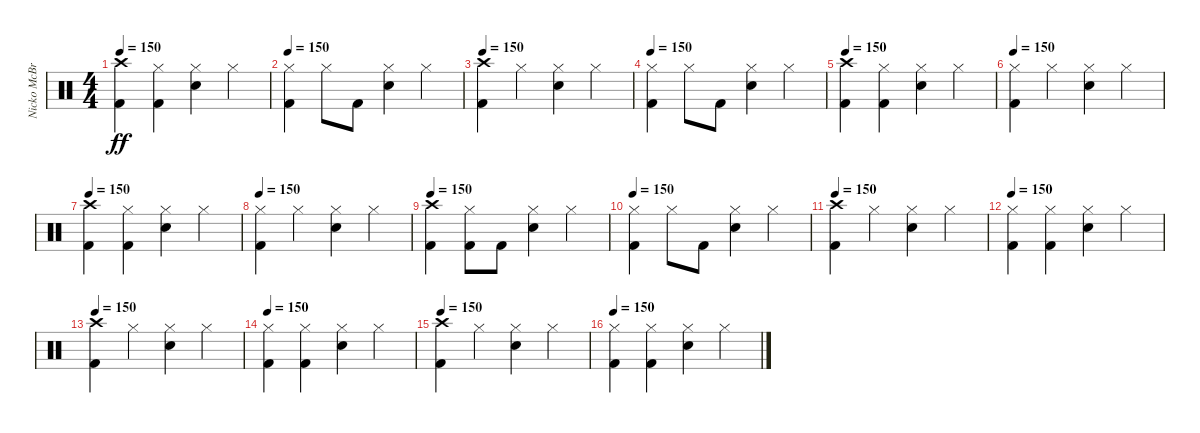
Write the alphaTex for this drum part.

\track ("Nicko McBrain" "Nicko McBr") {instrument percussion}
\staff {score}
\articulation defaults
\ts (4 4)
\tempo 150
\clef neutral
\ks c
("Kick (hit) 2" "Crash high (hit)").4{dy ff} ("Kick (hit) 2" "Hi-Hat (closed)").4 ("Snare (hit) 2" "Hi-Hat (closed)").4 "Hi-Hat (closed)".4 |
\tempo 150
("Kick (hit) 2" "Hi-Hat (closed)").4 "Hi-Hat (closed)".8 "Kick (hit) 2".8 ("Snare (hit) 2" "Hi-Hat (closed)").4 "Hi-Hat (closed)".4 |
\tempo 150
("Kick (hit) 2" "Crash high (hit)").4 "Hi-Hat (closed)".4 ("Snare (hit) 2" "Hi-Hat (closed)").4 "Hi-Hat (closed)".4 |
\tempo 150
("Kick (hit) 2" "Hi-Hat (closed)").4 "Hi-Hat (closed)".8 "Kick (hit) 2".8 ("Snare (hit) 2" "Hi-Hat (closed)").4 "Hi-Hat (closed)".4 |
\tempo 150
("Kick (hit) 2" "Crash high (hit)").4 ("Kick (hit) 2" "Hi-Hat (closed)").4 ("Snare (hit) 2" "Hi-Hat (closed)").4 "Hi-Hat (closed)".4 |
\tempo 150
("Kick (hit) 2" "Hi-Hat (closed)").4 "Hi-Hat (closed)".4 ("Snare (hit) 2" "Hi-Hat (closed)").4 "Hi-Hat (closed)".4 |
\tempo 150
("Kick (hit) 2" "Crash high (hit)").4 ("Kick (hit) 2" "Hi-Hat (closed)").4 ("Snare (hit) 2" "Hi-Hat (closed)").4 "Hi-Hat (closed)".4 |
\tempo 150
("Kick (hit) 2" "Hi-Hat (closed)").4 "Hi-Hat (closed)".4 ("Snare (hit) 2" "Hi-Hat (closed)").4 "Hi-Hat (closed)".4 |
\tempo 150
("Kick (hit) 2" "Crash high (hit)").4 ("Kick (hit) 2" "Hi-Hat (closed)").8 "Kick (hit) 2".8 ("Snare (hit) 2" "Hi-Hat (closed)").4 "Hi-Hat (closed)".4 |
\tempo 150
("Kick (hit) 2" "Hi-Hat (closed)").4 "Hi-Hat (closed)".8 "Kick (hit) 2".8 ("Snare (hit) 2" "Hi-Hat (closed)").4 "Hi-Hat (closed)".4 |
\tempo 150
("Kick (hit) 2" "Crash high (hit)").4 "Hi-Hat (closed)".4 ("Snare (hit) 2" "Hi-Hat (closed)").4 "Hi-Hat (closed)".4 |
\tempo 150
("Kick (hit) 2" "Hi-Hat (closed)").4 ("Kick (hit) 2" "Hi-Hat (closed)").4 ("Snare (hit) 2" "Hi-Hat (closed)").4 "Hi-Hat (closed)".4 |
\tempo 150
("Kick (hit) 2" "Crash high (hit)").4 "Hi-Hat (closed)".4 ("Snare (hit) 2" "Hi-Hat (closed)").4 "Hi-Hat (closed)".4 |
\tempo 150
("Kick (hit) 2" "Hi-Hat (closed)").4 ("Kick (hit) 2" "Hi-Hat (closed)").4 ("Snare (hit) 2" "Hi-Hat (closed)").4 "Hi-Hat (closed)".4 |
\tempo 150
("Kick (hit) 2" "Crash high (hit)").4 "Hi-Hat (closed)".4 ("Snare (hit) 2" "Hi-Hat (closed)").4 "Hi-Hat (closed)".4 |
\tempo 150
("Kick (hit) 2" "Hi-Hat (closed)").4 ("Kick (hit) 2" "Hi-Hat (closed)").4 ("Snare (hit) 2" "Hi-Hat (closed)").4 "Hi-Hat (closed)".4
